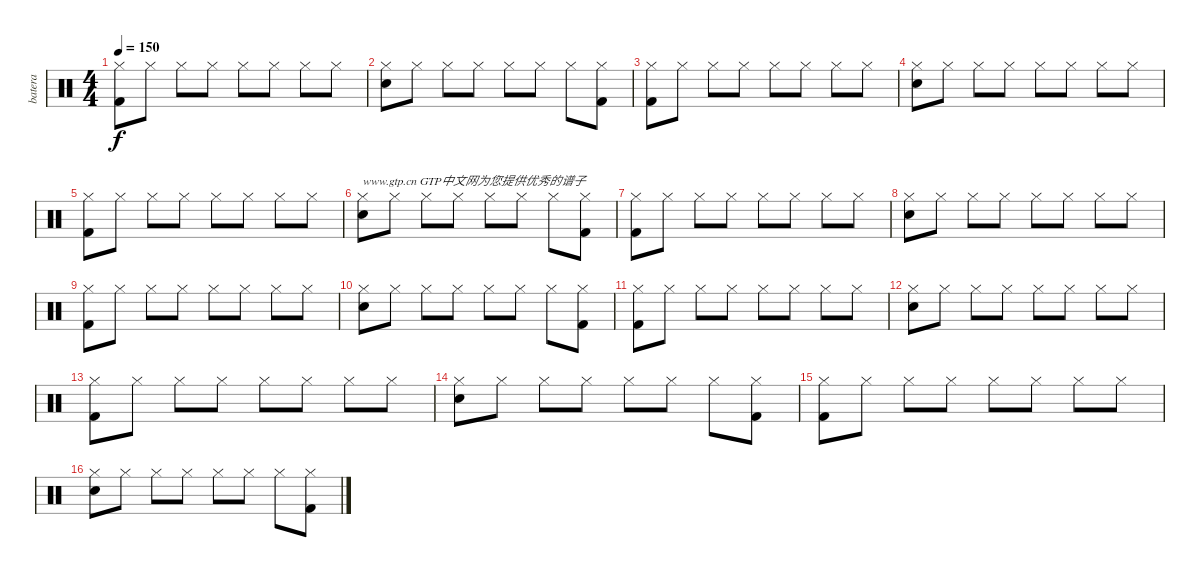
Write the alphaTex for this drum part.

\track ("batera" "batera") {instrument percussion}
\staff {score}
\articulation defaults
\ts (4 4)
\tempo 150
\clef neutral
\ks c
("Hi-Hat (closed)" "Kick (hit) 2").8{dy f} "Hi-Hat (closed)".8 "Hi-Hat (closed)".8 "Hi-Hat (closed)".8 "Hi-Hat (closed)".8 "Hi-Hat (closed)".8 "Hi-Hat (closed)".8 "Hi-Hat (closed)".8 |
("Hi-Hat (closed)" "Snare (hit) 2").8 "Hi-Hat (closed)".8 "Hi-Hat (closed)".8 "Hi-Hat (closed)".8 "Hi-Hat (closed)".8 "Hi-Hat (closed)".8 "Hi-Hat (closed)".8 ("Hi-Hat (closed)" "Kick (hit) 2").8 |
("Hi-Hat (closed)" "Kick (hit) 2").8 "Hi-Hat (closed)".8 "Hi-Hat (closed)".8 "Hi-Hat (closed)".8 "Hi-Hat (closed)".8 "Hi-Hat (closed)".8 "Hi-Hat (closed)".8 "Hi-Hat (closed)".8 |
("Hi-Hat (closed)" "Snare (hit) 2").8 "Hi-Hat (closed)".8 "Hi-Hat (closed)".8 "Hi-Hat (closed)".8 "Hi-Hat (closed)".8 "Hi-Hat (closed)".8 "Hi-Hat (closed)".8 "Hi-Hat (closed)".8 |
("Hi-Hat (closed)" "Kick (hit) 2").8 "Hi-Hat (closed)".8 "Hi-Hat (closed)".8 "Hi-Hat (closed)".8 "Hi-Hat (closed)".8 "Hi-Hat (closed)".8 "Hi-Hat (closed)".8 "Hi-Hat (closed)".8 |
("Hi-Hat (closed)" "Snare (hit) 2").8{txt "www.gtp.cn GTP中文网为您提供优秀的谱子"} "Hi-Hat (closed)".8 "Hi-Hat (closed)".8 "Hi-Hat (closed)".8 "Hi-Hat (closed)".8 "Hi-Hat (closed)".8 "Hi-Hat (closed)".8 ("Hi-Hat (closed)" "Kick (hit) 2").8 |
("Hi-Hat (closed)" "Kick (hit) 2").8 "Hi-Hat (closed)".8 "Hi-Hat (closed)".8 "Hi-Hat (closed)".8 "Hi-Hat (closed)".8 "Hi-Hat (closed)".8 "Hi-Hat (closed)".8 "Hi-Hat (closed)".8 |
("Hi-Hat (closed)" "Snare (hit) 2").8 "Hi-Hat (closed)".8 "Hi-Hat (closed)".8 "Hi-Hat (closed)".8 "Hi-Hat (closed)".8 "Hi-Hat (closed)".8 "Hi-Hat (closed)".8 "Hi-Hat (closed)".8 |
("Hi-Hat (closed)" "Kick (hit) 2").8 "Hi-Hat (closed)".8 "Hi-Hat (closed)".8 "Hi-Hat (closed)".8 "Hi-Hat (closed)".8 "Hi-Hat (closed)".8 "Hi-Hat (closed)".8 "Hi-Hat (closed)".8 |
("Hi-Hat (closed)" "Snare (hit) 2").8 "Hi-Hat (closed)".8 "Hi-Hat (closed)".8 "Hi-Hat (closed)".8 "Hi-Hat (closed)".8 "Hi-Hat (closed)".8 "Hi-Hat (closed)".8 ("Hi-Hat (closed)" "Kick (hit) 2").8 |
("Hi-Hat (closed)" "Kick (hit) 2").8 "Hi-Hat (closed)".8 "Hi-Hat (closed)".8 "Hi-Hat (closed)".8 "Hi-Hat (closed)".8 "Hi-Hat (closed)".8 "Hi-Hat (closed)".8 "Hi-Hat (closed)".8 |
("Hi-Hat (closed)" "Snare (hit) 2").8 "Hi-Hat (closed)".8 "Hi-Hat (closed)".8 "Hi-Hat (closed)".8 "Hi-Hat (closed)".8 "Hi-Hat (closed)".8 "Hi-Hat (closed)".8 "Hi-Hat (closed)".8 |
("Hi-Hat (closed)" "Kick (hit) 2").8 "Hi-Hat (closed)".8 "Hi-Hat (closed)".8 "Hi-Hat (closed)".8 "Hi-Hat (closed)".8 "Hi-Hat (closed)".8 "Hi-Hat (closed)".8 "Hi-Hat (closed)".8 |
("Hi-Hat (closed)" "Snare (hit) 2").8 "Hi-Hat (closed)".8 "Hi-Hat (closed)".8 "Hi-Hat (closed)".8 "Hi-Hat (closed)".8 "Hi-Hat (closed)".8 "Hi-Hat (closed)".8 ("Hi-Hat (closed)" "Kick (hit) 2").8 |
("Hi-Hat (closed)" "Kick (hit) 2").8 "Hi-Hat (closed)".8 "Hi-Hat (closed)".8 "Hi-Hat (closed)".8 "Hi-Hat (closed)".8 "Hi-Hat (closed)".8 "Hi-Hat (closed)".8 "Hi-Hat (closed)".8 |
("Hi-Hat (closed)" "Snare (hit) 2").8 "Hi-Hat (closed)".8 "Hi-Hat (closed)".8 "Hi-Hat (closed)".8 "Hi-Hat (closed)".8 "Hi-Hat (closed)".8 "Hi-Hat (closed)".8 ("Hi-Hat (closed)" "Kick (hit) 2").8
